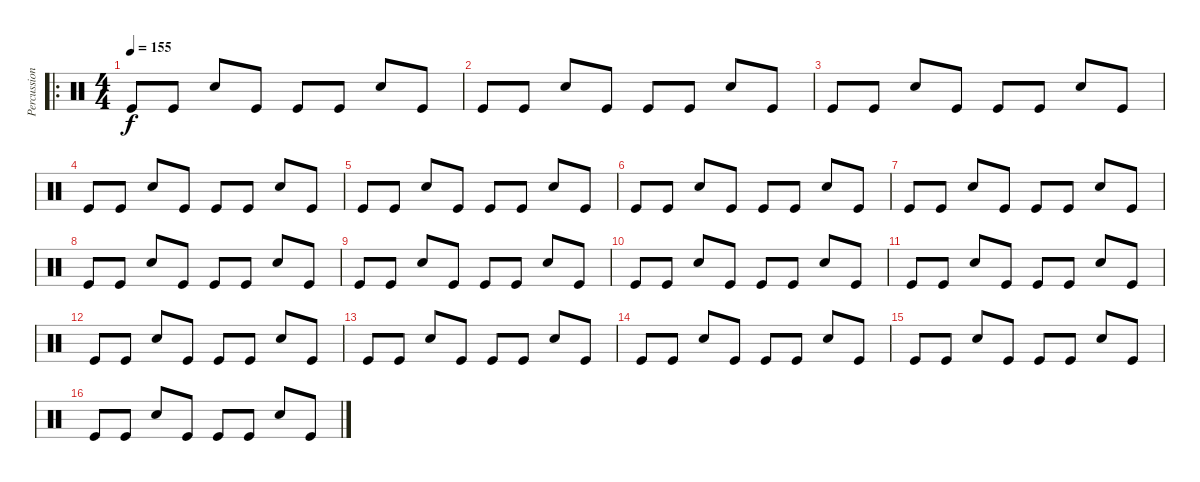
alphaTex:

\track ("Percussion" "Percussion") {instrument percussion}
\staff {score}
\articulation defaults
\ro
\ts (4 4)
\tempo 155
\clef neutral
\ks c "Kick (hit)".8{dy f} "Kick (hit)".8 "Snare (hit) 2".8 "Kick (hit)".8 "Kick (hit)".8 "Kick (hit)".8 "Snare (hit) 2".8 "Kick (hit)".8
|
"Kick (hit)".8 "Kick (hit)".8 "Snare (hit) 2".8 "Kick (hit)".8 "Kick (hit)".8 "Kick (hit)".8 "Snare (hit) 2".8 "Kick (hit)".8 |
"Kick (hit)".8 "Kick (hit)".8 "Snare (hit) 2".8 "Kick (hit)".8 "Kick (hit)".8 "Kick (hit)".8 "Snare (hit) 2".8 "Kick (hit)".8 |
"Kick (hit)".8 "Kick (hit)".8 "Snare (hit) 2".8 "Kick (hit)".8 "Kick (hit)".8 "Kick (hit)".8 "Snare (hit) 2".8 "Kick (hit)".8 |
"Kick (hit)".8 "Kick (hit)".8 "Snare (hit) 2".8 "Kick (hit)".8 "Kick (hit)".8 "Kick (hit)".8 "Snare (hit) 2".8 "Kick (hit)".8 |
"Kick (hit)".8 "Kick (hit)".8 "Snare (hit) 2".8 "Kick (hit)".8 "Kick (hit)".8 "Kick (hit)".8 "Snare (hit) 2".8 "Kick (hit)".8 |
"Kick (hit)".8 "Kick (hit)".8 "Snare (hit) 2".8 "Kick (hit)".8 "Kick (hit)".8 "Kick (hit)".8 "Snare (hit) 2".8 "Kick (hit)".8 |
"Kick (hit)".8 "Kick (hit)".8 "Snare (hit) 2".8 "Kick (hit)".8 "Kick (hit)".8 "Kick (hit)".8 "Snare (hit) 2".8 "Kick (hit)".8 |
"Kick (hit)".8 "Kick (hit)".8 "Snare (hit) 2".8 "Kick (hit)".8 "Kick (hit)".8 "Kick (hit)".8 "Snare (hit) 2".8 "Kick (hit)".8 |
"Kick (hit)".8 "Kick (hit)".8 "Snare (hit) 2".8 "Kick (hit)".8 "Kick (hit)".8 "Kick (hit)".8 "Snare (hit) 2".8 "Kick (hit)".8 |
"Kick (hit)".8 "Kick (hit)".8 "Snare (hit) 2".8 "Kick (hit)".8 "Kick (hit)".8 "Kick (hit)".8 "Snare (hit) 2".8 "Kick (hit)".8 |
"Kick (hit)".8 "Kick (hit)".8 "Snare (hit) 2".8 "Kick (hit)".8 "Kick (hit)".8 "Kick (hit)".8 "Snare (hit) 2".8 "Kick (hit)".8 |
"Kick (hit)".8 "Kick (hit)".8 "Snare (hit) 2".8 "Kick (hit)".8 "Kick (hit)".8 "Kick (hit)".8 "Snare (hit) 2".8 "Kick (hit)".8 |
"Kick (hit)".8 "Kick (hit)".8 "Snare (hit) 2".8 "Kick (hit)".8 "Kick (hit)".8 "Kick (hit)".8 "Snare (hit) 2".8 "Kick (hit)".8 |
"Kick (hit)".8 "Kick (hit)".8 "Snare (hit) 2".8 "Kick (hit)".8 "Kick (hit)".8 "Kick (hit)".8 "Snare (hit) 2".8 "Kick (hit)".8 |
"Kick (hit)".8 "Kick (hit)".8 "Snare (hit) 2".8 "Kick (hit)".8 "Kick (hit)".8 "Kick (hit)".8 "Snare (hit) 2".8 "Kick (hit)".8
